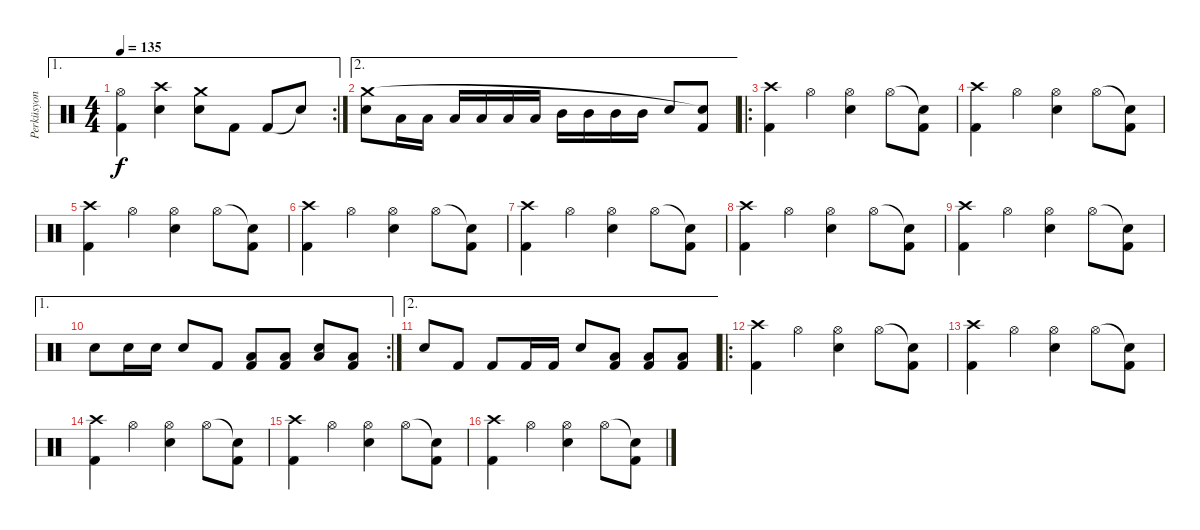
\track ("Perküsyon" "Perküsyon") {instrument percussion}
\staff {score}
\articulation defaults
\ae 1
\rc 2
\ts (4 4)
\tempo 135
\clef neutral
\ks c
("Kick (hit) 2" "Hi-Hat (open)").4{dy f} ("Snare (hit) 2" "Crash high (hit)").4 ("Snare (hit) 2" "Crash medium (hit)").8 "Kick (hit) 2".8 "Kick (hit) 2".8 "Snare (hit)"{t}.8 |
\ae 2
("Snare (hit) 2" "Crash medium (hit)").8 "Low Tom (hit)".16 "Low Tom (hit)".16 "Low Tom (hit)".16 "Low Tom (hit)".16 "Low Tom (hit)".16 "Low Tom (hit)".16 "Mid Tom (hit)".16 "Mid Tom (hit)".16 "Mid Tom (hit)".16 "Mid Tom (hit)".16 "Snare (hit) 2".8 ("Kick (hit) 2" "Snare (hit)"{t}).8 |
\ro
("Crash high (hit)" "Kick (hit) 2").4 "Hi-Hat (open)".4 ("Hi-Hat (open)" "Snare (hit) 2").4 "Hi-Hat (open)".8 ("Snare (hit)"{t} "Kick (hit) 2").8 |
("Crash high (hit)" "Kick (hit) 2").4 "Hi-Hat (open)".4 ("Hi-Hat (open)" "Snare (hit) 2").4 "Hi-Hat (open)".8 ("Snare (hit)"{t} "Kick (hit) 2").8 |
("Crash high (hit)" "Kick (hit) 2").4 "Hi-Hat (open)".4 ("Hi-Hat (open)" "Snare (hit) 2").4 "Hi-Hat (open)".8 ("Snare (hit)"{t} "Kick (hit) 2").8 |
("Crash high (hit)" "Kick (hit) 2").4 "Hi-Hat (open)".4 ("Hi-Hat (open)" "Snare (hit) 2").4 "Hi-Hat (open)".8 ("Snare (hit)"{t} "Kick (hit) 2").8 |
("Crash high (hit)" "Kick (hit) 2").4 "Hi-Hat (open)".4 ("Hi-Hat (open)" "Snare (hit) 2").4 "Hi-Hat (open)".8 ("Snare (hit)"{t} "Kick (hit) 2").8 |
("Crash high (hit)" "Kick (hit) 2").4 "Hi-Hat (open)".4 ("Hi-Hat (open)" "Snare (hit) 2").4 "Hi-Hat (open)".8 ("Snare (hit)"{t} "Kick (hit) 2").8 |
("Crash high (hit)" "Kick (hit) 2").4 "Hi-Hat (open)".4 ("Hi-Hat (open)" "Snare (hit) 2").4 "Hi-Hat (open)".8 ("Snare (hit)"{t} "Kick (hit) 2").8 |
\ae 1
\rc 2 "Snare (hit) 2".8 "Snare (hit) 2".16 "Snare (hit) 2".16 "Snare (hit) 2".8 "Kick (hit) 2".8
("Kick (hit) 2" "Low Tom (hit)").8 ("Kick (hit) 2" "Low Tom (hit)").8 ("Snare (hit) 2" "Low Tom (hit)").8 ("Kick (hit) 2" "Low Tom (hit)").8 |
\ae 2 "Snare (hit) 2".8 "Kick (hit) 2".8 "Kick (hit) 2".8 "Kick (hit) 2".16 "Kick (hit) 2".16 "Snare (hit) 2".8
("Kick (hit) 2" "Low Tom (hit)").8 ("Kick (hit) 2" "Low Tom (hit)").8 ("Kick (hit) 2" "Low Tom (hit)").8 |
\ro
("Crash high (hit)" "Kick (hit) 2").4 "Hi-Hat (open)".4 ("Hi-Hat (open)" "Snare (hit) 2").4 "Hi-Hat (open)".8 ("Snare (hit)"{t} "Kick (hit) 2").8 |
("Crash high (hit)" "Kick (hit) 2").4 "Hi-Hat (open)".4 ("Hi-Hat (open)" "Snare (hit) 2").4 "Hi-Hat (open)".8 ("Snare (hit)"{t} "Kick (hit) 2").8 |
("Crash high (hit)" "Kick (hit) 2").4 "Hi-Hat (open)".4 ("Hi-Hat (open)" "Snare (hit) 2").4 "Hi-Hat (open)".8 ("Snare (hit)"{t} "Kick (hit) 2").8 |
("Crash high (hit)" "Kick (hit) 2").4 "Hi-Hat (open)".4 ("Hi-Hat (open)" "Snare (hit) 2").4 "Hi-Hat (open)".8 ("Snare (hit)"{t} "Kick (hit) 2").8 |
("Crash high (hit)" "Kick (hit) 2").4 "Hi-Hat (open)".4 ("Hi-Hat (open)" "Snare (hit) 2").4 "Hi-Hat (open)".8 ("Snare (hit)"{t} "Kick (hit) 2").8
